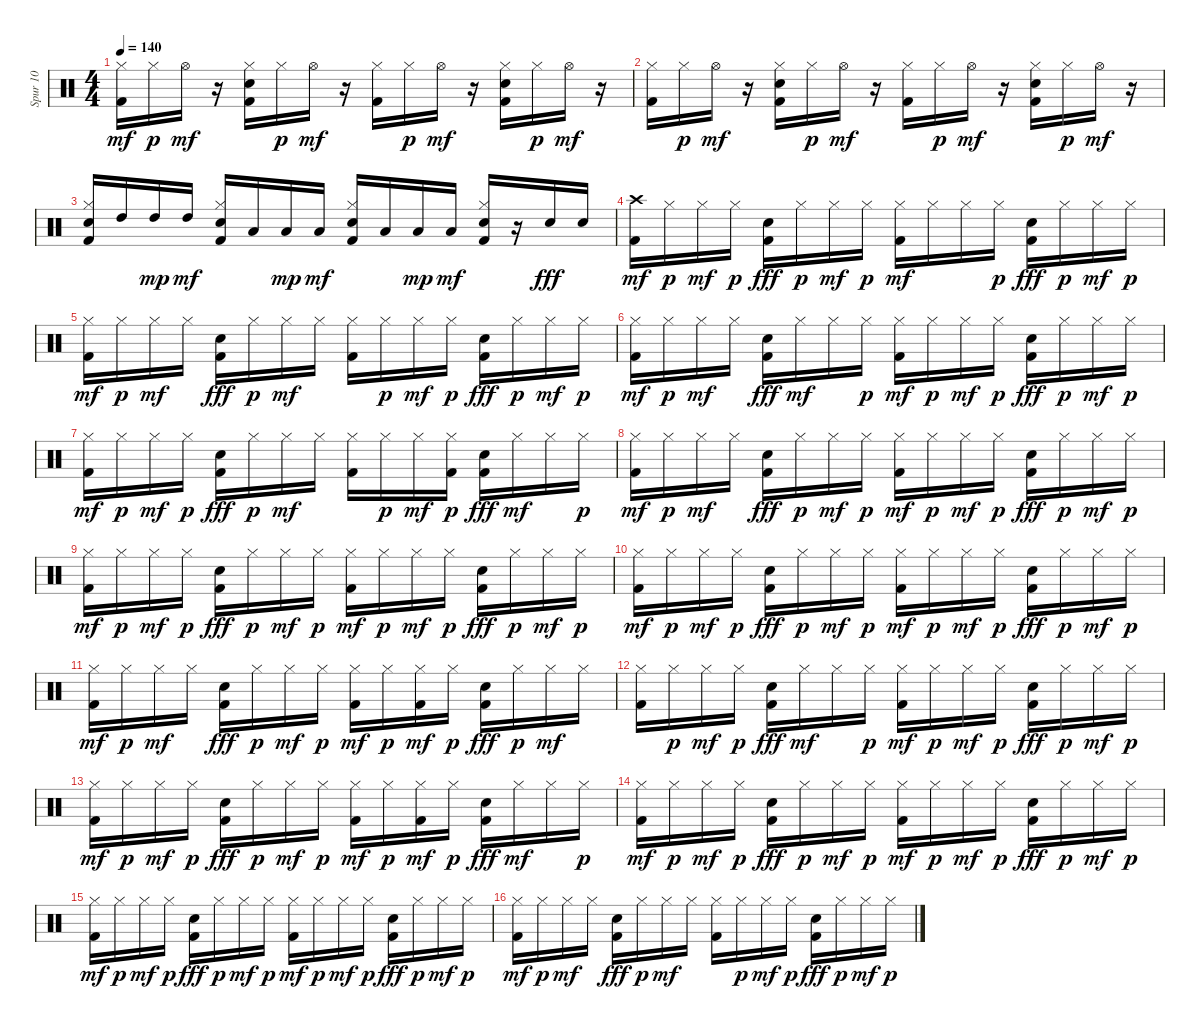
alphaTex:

\track ("Spur 10" "Spur 10") {instrument percussion}
\staff {score}
\articulation defaults
\ts (4 4)
\tempo 140
\clef neutral
\ks c
("Kick (hit) 2" "Hi-Hat (closed)").16{dy mf} "Hi-Hat (closed)".16{dy p} "Hi-Hat (open)".16{dy mf} r.16 ("Kick (hit) 2" "Snare (hit) 2" "Hi-Hat (closed)").16 "Hi-Hat (closed)".16{dy p} "Hi-Hat (open)".16{dy mf} r.16 ("Kick (hit) 2" "Hi-Hat (closed)").16 "Hi-Hat (closed)".16{dy p} "Hi-Hat (open)".16{dy mf} r.16 ("Kick (hit) 2" "Snare (hit) 2" "Hi-Hat (closed)").16 "Hi-Hat (closed)".16{dy p} "Hi-Hat (open)".16{dy mf} r.16 |
("Kick (hit) 2" "Hi-Hat (closed)").16 "Hi-Hat (closed)".16{dy p} "Hi-Hat (open)".16{dy mf} r.16 ("Kick (hit) 2" "Snare (hit) 2" "Hi-Hat (closed)").16 "Hi-Hat (closed)".16{dy p} "Hi-Hat (open)".16{dy mf} r.16 ("Kick (hit) 2" "Hi-Hat (closed)").16 "Hi-Hat (closed)".16{dy p} "Hi-Hat (open)".16{dy mf} r.16 ("Kick (hit) 2" "Snare (hit) 2" "Hi-Hat (closed)").16 "Hi-Hat (closed)".16{dy p} "Hi-Hat (open)".16{dy mf} r.16 |
("Kick (hit) 2" "Snare (hit) 2" "Hi-Hat (closed)").16 "High Tom (hit)".16 "High Tom (hit)".16{dy mp} "High Tom (hit)".16{dy mf} ("Kick (hit) 2" "Snare (hit) 2" "Hi-Hat (closed)").16 "Low Tom (hit)".16 "Low Tom (hit)".16{dy mp} "Low Tom (hit)".16{dy mf} ("Kick (hit) 2" "Snare (hit) 2" "Hi-Hat (closed)").16 "Low Floor Tom (hit)".16 "Low Floor Tom (hit)".16{dy mp} "Low Floor Tom (hit)".16{dy mf} ("Kick (hit) 2" "Snare (hit) 2" "Hi-Hat (closed)").16 r.16 "Snare (hit) 2".16{dy fff} "Snare (hit) 2".16 |
("Kick (hit) 2" "Crash high (hit)").16{dy mf} "Hi-Hat (closed)".16{dy p} "Hi-Hat (closed)".16{dy mf} "Hi-Hat (closed)".16{dy p} ("Kick (hit) 2" "Snare (hit) 2").16{dy fff} "Hi-Hat (closed)".16{dy p} "Hi-Hat (closed)".16{dy mf} "Hi-Hat (closed)".16{dy p} ("Kick (hit) 2" "Hi-Hat (closed)").16{dy mf} "Hi-Hat (closed)".16 "Hi-Hat (closed)".16 "Hi-Hat (closed)".16{dy p} ("Kick (hit) 2" "Snare (hit) 2").16{dy fff} "Hi-Hat (closed)".16{dy p} "Hi-Hat (closed)".16{dy mf} "Hi-Hat (closed)".16{dy p} |
("Kick (hit) 2" "Hi-Hat (closed)").16{dy mf} "Hi-Hat (closed)".16{dy p} "Hi-Hat (closed)".16{dy mf} "Hi-Hat (closed)".16 ("Kick (hit) 2" "Snare (hit) 2").16{dy fff} "Hi-Hat (closed)".16{dy p} "Hi-Hat (closed)".16{dy mf} "Hi-Hat (closed)".16 ("Kick (hit) 2" "Hi-Hat (closed)").16 "Hi-Hat (closed)".16{dy p} "Hi-Hat (closed)".16{dy mf} "Hi-Hat (closed)".16{dy p} ("Kick (hit) 2" "Snare (hit) 2").16{dy fff} "Hi-Hat (closed)".16{dy p} "Hi-Hat (closed)".16{dy mf} "Hi-Hat (closed)".16{dy p} |
("Kick (hit) 2" "Hi-Hat (closed)").16{dy mf} "Hi-Hat (closed)".16{dy p} "Hi-Hat (closed)".16{dy mf} "Hi-Hat (closed)".16 ("Kick (hit) 2" "Snare (hit) 2").16{dy fff} "Hi-Hat (closed)".16{dy mf} "Hi-Hat (closed)".16 "Hi-Hat (closed)".16{dy p} ("Kick (hit) 2" "Hi-Hat (closed)").16{dy mf} "Hi-Hat (closed)".16{dy p} "Hi-Hat (closed)".16{dy mf} "Hi-Hat (closed)".16{dy p} ("Kick (hit) 2" "Snare (hit) 2").16{dy fff} "Hi-Hat (closed)".16{dy p} "Hi-Hat (closed)".16{dy mf} "Hi-Hat (closed)".16{dy p} |
("Kick (hit) 2" "Hi-Hat (closed)").16{dy mf} "Hi-Hat (closed)".16{dy p} "Hi-Hat (closed)".16{dy mf} "Hi-Hat (closed)".16{dy p} ("Kick (hit) 2" "Snare (hit) 2").16{dy fff} "Hi-Hat (closed)".16{dy p} "Hi-Hat (closed)".16{dy mf} "Hi-Hat (closed)".16 ("Kick (hit) 2" "Hi-Hat (closed)").16 "Hi-Hat (closed)".16{dy p} "Hi-Hat (closed)".16{dy mf} ("Kick (hit) 2" "Hi-Hat (closed)").16{dy p} ("Kick (hit) 2" "Snare (hit) 2").16{dy fff} "Hi-Hat (closed)".16{dy mf} "Hi-Hat (closed)".16 "Hi-Hat (closed)".16{dy p} |
("Kick (hit) 2" "Hi-Hat (closed)").16{dy mf} "Hi-Hat (closed)".16{dy p} "Hi-Hat (closed)".16{dy mf} "Hi-Hat (closed)".16 ("Kick (hit) 2" "Snare (hit) 2").16{dy fff} "Hi-Hat (closed)".16{dy p} "Hi-Hat (closed)".16{dy mf} "Hi-Hat (closed)".16{dy p} ("Kick (hit) 2" "Hi-Hat (closed)").16{dy mf} "Hi-Hat (closed)".16{dy p} "Hi-Hat (closed)".16{dy mf} "Hi-Hat (closed)".16{dy p} ("Kick (hit) 2" "Snare (hit) 2").16{dy fff} "Hi-Hat (closed)".16{dy p} "Hi-Hat (closed)".16{dy mf} "Hi-Hat (closed)".16{dy p} |
("Kick (hit) 2" "Hi-Hat (closed)").16{dy mf} "Hi-Hat (closed)".16{dy p} "Hi-Hat (closed)".16{dy mf} "Hi-Hat (closed)".16{dy p} ("Kick (hit) 2" "Snare (hit) 2").16{dy fff} "Hi-Hat (closed)".16{dy p} "Hi-Hat (closed)".16{dy mf} "Hi-Hat (closed)".16{dy p} ("Kick (hit) 2" "Hi-Hat (closed)").16{dy mf} "Hi-Hat (closed)".16{dy p} "Hi-Hat (closed)".16{dy mf} "Hi-Hat (closed)".16{dy p} ("Kick (hit) 2" "Snare (hit) 2").16{dy fff} "Hi-Hat (closed)".16{dy p} "Hi-Hat (closed)".16{dy mf} "Hi-Hat (closed)".16{dy p} |
("Kick (hit) 2" "Hi-Hat (closed)").16{dy mf} "Hi-Hat (closed)".16{dy p} "Hi-Hat (closed)".16{dy mf} "Hi-Hat (closed)".16{dy p} ("Kick (hit) 2" "Snare (hit) 2").16{dy fff} "Hi-Hat (closed)".16{dy p} "Hi-Hat (closed)".16{dy mf} "Hi-Hat (closed)".16{dy p} ("Kick (hit) 2" "Hi-Hat (closed)").16{dy mf} "Hi-Hat (closed)".16{dy p} "Hi-Hat (closed)".16{dy mf} "Hi-Hat (closed)".16{dy p} ("Kick (hit) 2" "Snare (hit) 2").16{dy fff} "Hi-Hat (closed)".16{dy p} "Hi-Hat (closed)".16{dy mf} "Hi-Hat (closed)".16{dy p} |
("Kick (hit) 2" "Hi-Hat (closed)").16{dy mf} "Hi-Hat (closed)".16{dy p} "Hi-Hat (closed)".16{dy mf} "Hi-Hat (closed)".16 ("Kick (hit) 2" "Snare (hit) 2").16{dy fff} "Hi-Hat (closed)".16{dy p} "Hi-Hat (closed)".16{dy mf} "Hi-Hat (closed)".16{dy p} ("Kick (hit) 2" "Hi-Hat (closed)").16{dy mf} "Hi-Hat (closed)".16{dy p} ("Kick (hit) 2" "Hi-Hat (closed)").16{dy mf} "Hi-Hat (closed)".16{dy p} ("Kick (hit) 2" "Snare (hit) 2").16{dy fff} "Hi-Hat (closed)".16{dy p} "Hi-Hat (closed)".16{dy mf} "Hi-Hat (closed)".16 |
("Kick (hit) 2" "Hi-Hat (closed)").16 "Hi-Hat (closed)".16{dy p} "Hi-Hat (closed)".16{dy mf} "Hi-Hat (closed)".16{dy p} ("Kick (hit) 2" "Snare (hit) 2").16{dy fff} "Hi-Hat (closed)".16{dy mf} "Hi-Hat (closed)".16 "Hi-Hat (closed)".16{dy p} ("Kick (hit) 2" "Hi-Hat (closed)").16{dy mf} "Hi-Hat (closed)".16{dy p} "Hi-Hat (closed)".16{dy mf} "Hi-Hat (closed)".16{dy p} ("Kick (hit) 2" "Snare (hit) 2").16{dy fff} "Hi-Hat (closed)".16{dy p} "Hi-Hat (closed)".16{dy mf} "Hi-Hat (closed)".16{dy p} |
("Kick (hit) 2" "Hi-Hat (closed)").16{dy mf} "Hi-Hat (closed)".16{dy p} "Hi-Hat (closed)".16{dy mf} "Hi-Hat (closed)".16{dy p} ("Kick (hit) 2" "Snare (hit) 2").16{dy fff} "Hi-Hat (closed)".16{dy p} "Hi-Hat (closed)".16{dy mf} "Hi-Hat (closed)".16{dy p} ("Kick (hit) 2" "Hi-Hat (closed)").16{dy mf} "Hi-Hat (closed)".16{dy p} ("Kick (hit) 2" "Hi-Hat (closed)").16{dy mf} "Hi-Hat (closed)".16{dy p} ("Kick (hit) 2" "Snare (hit) 2").16{dy fff} "Hi-Hat (closed)".16{dy mf} "Hi-Hat (closed)".16 "Hi-Hat (closed)".16{dy p} |
("Kick (hit) 2" "Hi-Hat (closed)").16{dy mf} "Hi-Hat (closed)".16{dy p} "Hi-Hat (closed)".16{dy mf} "Hi-Hat (closed)".16{dy p} ("Kick (hit) 2" "Snare (hit) 2").16{dy fff} "Hi-Hat (closed)".16{dy p} "Hi-Hat (closed)".16{dy mf} "Hi-Hat (closed)".16{dy p} ("Kick (hit) 2" "Hi-Hat (closed)").16{dy mf} "Hi-Hat (closed)".16{dy p} "Hi-Hat (closed)".16{dy mf} "Hi-Hat (closed)".16{dy p} ("Kick (hit) 2" "Snare (hit) 2").16{dy fff} "Hi-Hat (closed)".16{dy p} "Hi-Hat (closed)".16{dy mf} "Hi-Hat (closed)".16{dy p} |
("Kick (hit) 2" "Hi-Hat (closed)").16{dy mf} "Hi-Hat (closed)".16{dy p} "Hi-Hat (closed)".16{dy mf} "Hi-Hat (closed)".16{dy p} ("Kick (hit) 2" "Snare (hit) 2").16{dy fff} "Hi-Hat (closed)".16{dy p} "Hi-Hat (closed)".16{dy mf} "Hi-Hat (closed)".16{dy p} ("Kick (hit) 2" "Hi-Hat (closed)").16{dy mf} "Hi-Hat (closed)".16{dy p} "Hi-Hat (closed)".16{dy mf} "Hi-Hat (closed)".16{dy p} ("Kick (hit) 2" "Snare (hit) 2").16{dy fff} "Hi-Hat (closed)".16{dy p} "Hi-Hat (closed)".16{dy mf} "Hi-Hat (closed)".16{dy p} |
("Kick (hit) 2" "Hi-Hat (closed)").16{dy mf} "Hi-Hat (closed)".16{dy p} "Hi-Hat (closed)".16{dy mf} "Hi-Hat (closed)".16 ("Kick (hit) 2" "Snare (hit) 2").16{dy fff} "Hi-Hat (closed)".16{dy p} "Hi-Hat (closed)".16{dy mf} "Hi-Hat (closed)".16 ("Kick (hit) 2" "Hi-Hat (closed)").16 "Hi-Hat (closed)".16{dy p} "Hi-Hat (closed)".16{dy mf} "Hi-Hat (closed)".16{dy p} ("Kick (hit) 2" "Snare (hit) 2").16{dy fff} "Hi-Hat (closed)".16{dy p} "Hi-Hat (closed)".16{dy mf} "Hi-Hat (closed)".16{dy p}
